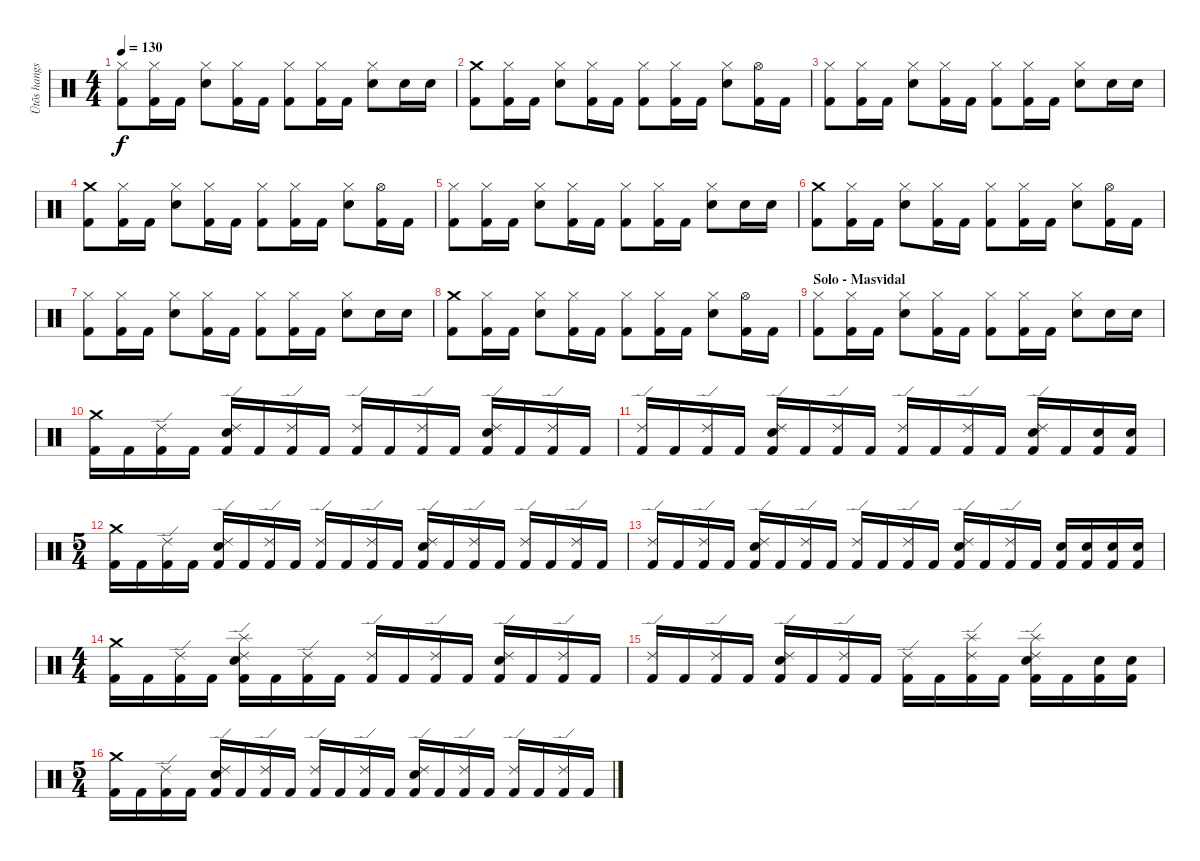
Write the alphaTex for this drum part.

\track ("Ütõs hangszer" "Ütõs hangs") {instrument percussion}
\staff {score}
\articulation defaults
\ts (4 4)
\tempo 130
\clef neutral
\ks c
("Hi-Hat (closed)" "Kick (hit) 2").8{dy f} ("Hi-Hat (closed)" "Kick (hit) 2").16 "Kick (hit) 2".16 ("Hi-Hat (closed)" "Snare (hit) 2").8 ("Hi-Hat (closed)" "Kick (hit) 2").16 "Kick (hit) 2".16 ("Hi-Hat (closed)" "Kick (hit) 2").8 ("Hi-Hat (closed)" "Kick (hit) 2").16 "Kick (hit) 2".16 ("Hi-Hat (closed)" "Snare (hit) 2").8 "Snare (hit) 2".16 "Snare (hit) 2".16 |
("Crash medium (hit)" "Kick (hit) 2").8 ("Hi-Hat (closed)" "Kick (hit) 2").16 "Kick (hit) 2".16 ("Hi-Hat (closed)" "Snare (hit) 2").8 ("Hi-Hat (closed)" "Kick (hit) 2").16 "Kick (hit) 2".16 ("Hi-Hat (closed)" "Kick (hit) 2").8 ("Hi-Hat (closed)" "Kick (hit) 2").16 "Kick (hit) 2".16 ("Hi-Hat (closed)" "Snare (hit) 2").8 ("Hi-Hat (open)" "Kick (hit) 2").16 "Kick (hit) 2".16 |
("Hi-Hat (closed)" "Kick (hit) 2").8 ("Hi-Hat (closed)" "Kick (hit) 2").16 "Kick (hit) 2".16 ("Hi-Hat (closed)" "Snare (hit) 2").8 ("Hi-Hat (closed)" "Kick (hit) 2").16 "Kick (hit) 2".16 ("Hi-Hat (closed)" "Kick (hit) 2").8 ("Hi-Hat (closed)" "Kick (hit) 2").16 "Kick (hit) 2".16 ("Hi-Hat (closed)" "Snare (hit) 2").8 "Snare (hit) 2".16 "Snare (hit) 2".16 |
("Crash medium (hit)" "Kick (hit) 2").8 ("Hi-Hat (closed)" "Kick (hit) 2").16 "Kick (hit) 2".16 ("Hi-Hat (closed)" "Snare (hit) 2").8 ("Hi-Hat (closed)" "Kick (hit) 2").16 "Kick (hit) 2".16 ("Hi-Hat (closed)" "Kick (hit) 2").8 ("Hi-Hat (closed)" "Kick (hit) 2").16 "Kick (hit) 2".16 ("Hi-Hat (closed)" "Snare (hit) 2").8 ("Hi-Hat (open)" "Kick (hit) 2").16 "Kick (hit) 2".16 |
("Hi-Hat (closed)" "Kick (hit) 2").8 ("Hi-Hat (closed)" "Kick (hit) 2").16 "Kick (hit) 2".16 ("Hi-Hat (closed)" "Snare (hit) 2").8 ("Hi-Hat (closed)" "Kick (hit) 2").16 "Kick (hit) 2".16 ("Hi-Hat (closed)" "Kick (hit) 2").8 ("Hi-Hat (closed)" "Kick (hit) 2").16 "Kick (hit) 2".16 ("Hi-Hat (closed)" "Snare (hit) 2").8 "Snare (hit) 2".16 "Snare (hit) 2".16 |
("Crash medium (hit)" "Kick (hit) 2").8 ("Hi-Hat (closed)" "Kick (hit) 2").16 "Kick (hit) 2".16 ("Hi-Hat (closed)" "Snare (hit) 2").8 ("Hi-Hat (closed)" "Kick (hit) 2").16 "Kick (hit) 2".16 ("Hi-Hat (closed)" "Kick (hit) 2").8 ("Hi-Hat (closed)" "Kick (hit) 2").16 "Kick (hit) 2".16 ("Hi-Hat (closed)" "Snare (hit) 2").8 ("Hi-Hat (open)" "Kick (hit) 2").16 "Kick (hit) 2".16 |
("Hi-Hat (closed)" "Kick (hit) 2").8 ("Hi-Hat (closed)" "Kick (hit) 2").16 "Kick (hit) 2".16 ("Hi-Hat (closed)" "Snare (hit) 2").8 ("Hi-Hat (closed)" "Kick (hit) 2").16 "Kick (hit) 2".16 ("Hi-Hat (closed)" "Kick (hit) 2").8 ("Hi-Hat (closed)" "Kick (hit) 2").16 "Kick (hit) 2".16 ("Hi-Hat (closed)" "Snare (hit) 2").8 "Snare (hit) 2".16 "Snare (hit) 2".16 |
("Crash medium (hit)" "Kick (hit) 2").8 ("Hi-Hat (closed)" "Kick (hit) 2").16 "Kick (hit) 2".16 ("Hi-Hat (closed)" "Snare (hit) 2").8 ("Hi-Hat (closed)" "Kick (hit) 2").16 "Kick (hit) 2".16 ("Hi-Hat (closed)" "Kick (hit) 2").8 ("Hi-Hat (closed)" "Kick (hit) 2").16 "Kick (hit) 2".16 ("Hi-Hat (closed)" "Snare (hit) 2").8 ("Hi-Hat (open)" "Kick (hit) 2").16 "Kick (hit) 2".16 |
\section ("" "Solo - Masvidal")
("Hi-Hat (closed)" "Kick (hit) 2").8 ("Hi-Hat (closed)" "Kick (hit) 2").16 "Kick (hit) 2".16 ("Hi-Hat (closed)" "Snare (hit) 2").8 ("Hi-Hat (closed)" "Kick (hit) 2").16 "Kick (hit) 2".16 ("Hi-Hat (closed)" "Kick (hit) 2").8 ("Hi-Hat (closed)" "Kick (hit) 2").16 "Kick (hit) 2".16 ("Hi-Hat (closed)" "Snare (hit) 2").8 "Snare (hit) 2".16 "Snare (hit) 2".16 |
("Crash medium (hit)" "Kick (hit) 2").16 "Kick (hit) 2".16 ("Ride (edge) 2" "Kick (hit) 2").16 "Kick (hit) 2".16 ("Ride (edge) 2" "Snare (hit) 2" "Kick (hit) 2").16 "Kick (hit) 2".16 ("Ride (edge) 2" "Kick (hit) 2").16 "Kick (hit) 2".16 ("Ride (edge) 2" "Kick (hit) 2").16 "Kick (hit) 2".16 ("Ride (edge) 2" "Kick (hit) 2").16 "Kick (hit) 2".16 ("Ride (edge) 2" "Snare (hit) 2" "Kick (hit) 2").16 "Kick (hit) 2".16 ("Ride (edge) 2" "Kick (hit) 2").16 "Kick (hit) 2".16 |
("Ride (edge) 2" "Kick (hit) 2").16 "Kick (hit) 2".16 ("Ride (edge) 2" "Kick (hit) 2").16 "Kick (hit) 2".16 ("Ride (edge) 2" "Snare (hit) 2" "Kick (hit) 2").16 "Kick (hit) 2".16 ("Ride (edge) 2" "Kick (hit) 2").16 "Kick (hit) 2".16 ("Ride (edge) 2" "Kick (hit) 2").16 "Kick (hit) 2".16 ("Ride (edge) 2" "Kick (hit) 2").16 "Kick (hit) 2".16 ("Ride (edge) 2" "Snare (hit) 2" "Kick (hit) 2").16 "Kick (hit) 2".16 ("Snare (hit) 2" "Kick (hit) 2").16 ("Snare (hit) 2" "Kick (hit) 2").16 |
\ts (5 4)
("Crash medium (hit)" "Kick (hit) 2").16 "Kick (hit) 2".16 ("Ride (edge) 2" "Kick (hit) 2").16 "Kick (hit) 2".16 ("Ride (edge) 2" "Snare (hit) 2" "Kick (hit) 2").16 "Kick (hit) 2".16 ("Ride (edge) 2" "Kick (hit) 2").16 "Kick (hit) 2".16 ("Ride (edge) 2" "Kick (hit) 2").16 "Kick (hit) 2".16 ("Ride (edge) 2" "Kick (hit) 2").16 "Kick (hit) 2".16 ("Ride (edge) 2" "Snare (hit) 2" "Kick (hit) 2").16 "Kick (hit) 2".16 ("Ride (edge) 2" "Kick (hit) 2").16 "Kick (hit) 2".16 ("Ride (edge) 2" "Kick (hit) 2").16 "Kick (hit) 2".16 ("Ride (edge) 2" "Kick (hit) 2").16 "Kick (hit) 2".16 |
("Ride (edge) 2" "Kick (hit) 2").16 "Kick (hit) 2".16 ("Ride (edge) 2" "Kick (hit) 2").16 "Kick (hit) 2".16 ("Ride (edge) 2" "Snare (hit) 2" "Kick (hit) 2").16 "Kick (hit) 2".16 ("Ride (edge) 2" "Kick (hit) 2").16 "Kick (hit) 2".16 ("Ride (edge) 2" "Kick (hit) 2").16 "Kick (hit) 2".16 ("Ride (edge) 2" "Kick (hit) 2").16 "Kick (hit) 2".16 ("Ride (edge) 2" "Snare (hit) 2" "Kick (hit) 2").16 "Kick (hit) 2".16 ("Ride (edge) 2" "Kick (hit) 2").16 "Kick (hit) 2".16 ("Snare (hit) 2" "Kick (hit) 2").16 ("Snare (hit) 2" "Kick (hit) 2").16 ("Snare (hit) 2" "Kick (hit) 2").16 ("Snare (hit) 2" "Kick (hit) 2").16 |
\ts (4 4)
("Crash medium (hit)" "Kick (hit) 2").16 "Kick (hit) 2".16 ("Ride (edge) 2" "Kick (hit) 2").16 "Kick (hit) 2".16 ("Splash (hit)" "Ride (edge) 2" "Snare (hit) 2" "Kick (hit) 2").16 "Kick (hit) 2".16 ("Ride (edge) 2" "Kick (hit) 2").16 "Kick (hit) 2".16 ("Ride (edge) 2" "Kick (hit) 2").16 "Kick (hit) 2".16 ("Ride (edge) 2" "Kick (hit) 2").16 "Kick (hit) 2".16 ("Ride (edge) 2" "Snare (hit) 2" "Kick (hit) 2").16 "Kick (hit) 2".16 ("Ride (edge) 2" "Kick (hit) 2").16 "Kick (hit) 2".16 |
("Ride (edge) 2" "Kick (hit) 2").16 "Kick (hit) 2".16 ("Ride (edge) 2" "Kick (hit) 2").16 "Kick (hit) 2".16 ("Ride (edge) 2" "Snare (hit) 2" "Kick (hit) 2").16 "Kick (hit) 2".16 ("Ride (edge) 2" "Kick (hit) 2").16 "Kick (hit) 2".16 ("Ride (edge) 2" "Kick (hit) 2").16 "Kick (hit) 2".16 ("Splash (hit)" "Ride (edge) 2" "Kick (hit) 2").16 "Kick (hit) 2".16 ("Splash (hit)" "Ride (edge) 2" "Snare (hit) 2" "Kick (hit) 2").16 "Kick (hit) 2".16 ("Snare (hit) 2" "Kick (hit) 2").16 ("Snare (hit) 2" "Kick (hit) 2").16 |
\ts (5 4)
("Crash medium (hit)" "Kick (hit) 2").16 "Kick (hit) 2".16 ("Ride (edge) 2" "Kick (hit) 2").16 "Kick (hit) 2".16 ("Ride (edge) 2" "Snare (hit) 2" "Kick (hit) 2").16 "Kick (hit) 2".16 ("Ride (edge) 2" "Kick (hit) 2").16 "Kick (hit) 2".16 ("Ride (edge) 2" "Kick (hit) 2").16 "Kick (hit) 2".16 ("Ride (edge) 2" "Kick (hit) 2").16 "Kick (hit) 2".16 ("Ride (edge) 2" "Snare (hit) 2" "Kick (hit) 2").16 "Kick (hit) 2".16 ("Ride (edge) 2" "Kick (hit) 2").16 "Kick (hit) 2".16 ("Ride (edge) 2" "Kick (hit) 2").16 "Kick (hit) 2".16 ("Ride (edge) 2" "Kick (hit) 2").16 "Kick (hit) 2".16
